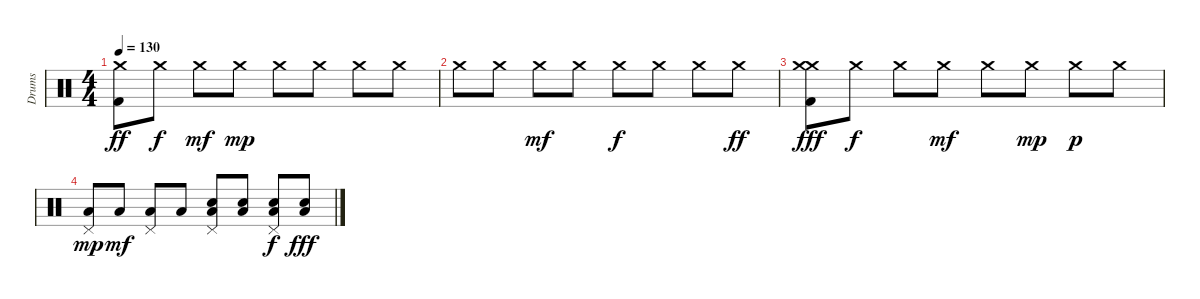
\track ("Drums" "Drums") {instrument percussion}
\staff {score}
\articulation defaults
\ts (4 4)
\tempo 130
\clef neutral
\ks c
("Crash medium (hit)" "Kick (hit) 2").8{dy ff} "Crash medium (hit)".8{dy f} "Crash medium (hit)".8{dy mf} "Crash medium (hit)".8{dy mp} "Crash medium (hit)".8 "Crash medium (hit)".8 "Crash medium (hit)".8 "Crash medium (hit)".8 |
"Crash medium (hit)".8 "Crash medium (hit)".8 "Crash medium (hit)".8{dy mf} "Crash medium (hit)".8 "Crash medium (hit)".8{dy f} "Crash medium (hit)".8 "Crash medium (hit)".8 "Crash medium (hit)".8{dy ff} |
("Crash medium (hit)" "Crash medium (hit)" "Kick (hit) 2").8{dy fff} "Crash medium (hit)".8{dy f} "Crash medium (hit)".8 "Crash medium (hit)".8{dy mf} "Crash medium (hit)".8 "Crash medium (hit)".8{dy mp} "Crash medium (hit)".8{dy p} "Crash medium (hit)".8 |
("Pedal Hi-Hat (hit)" "Low Tom (hit)").8{dy mp} "Low Tom (hit)".8{dy mf} ("Pedal Hi-Hat (hit)" "Low Tom (hit)").8 "Low Tom (hit)".8 ("Pedal Hi-Hat (hit)" "Snare (hit) 2" "Low Tom (hit)").8 ("Snare (hit) 2" "Low Tom (hit)").8 ("Pedal Hi-Hat (hit)" "Snare (hit) 2" "Low Tom (hit)").8{dy f} ("Snare (hit) 2" "Low Tom (hit)").8{dy fff}
